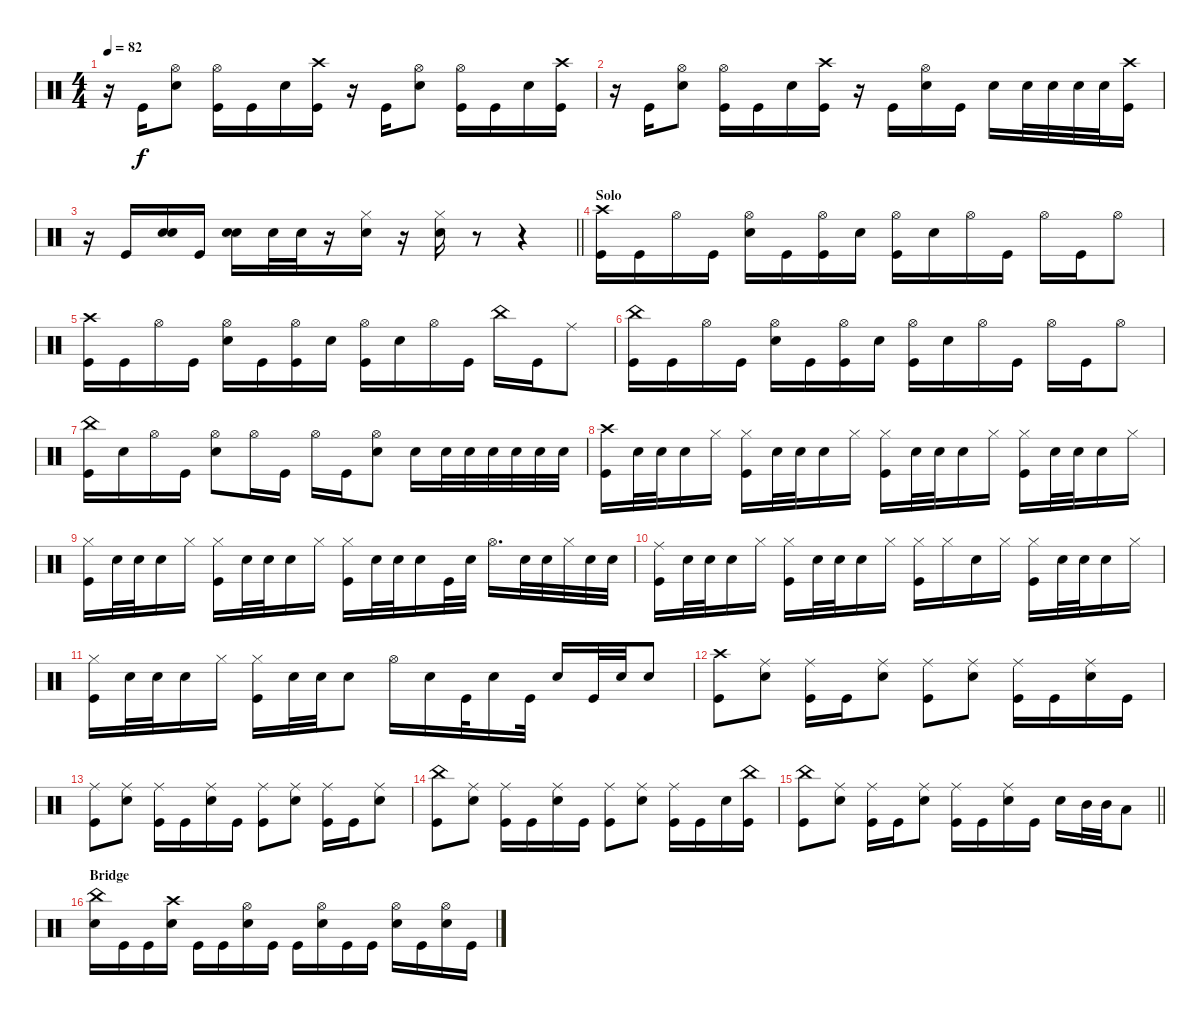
\track "" {instrument percussion}
\staff {score}
\articulation defaults
\ts (4 4)
\tempo 82
\clef neutral
\ks c
r.16{dy f} "Kick (hit)".16 ("Snare (hit) 2" "Hi-Hat (open)").8 ("Kick (hit)" "Hi-Hat (open)").16 "Kick (hit)".16 "Snare (hit) 2".16 ("Kick (hit)" "Crash high (hit)").16 r.16 "Kick (hit)".16 ("Snare (hit) 2" "Hi-Hat (open)").8 ("Kick (hit)" "Hi-Hat (open)").16 "Kick (hit)".16 "Snare (hit) 2".16 ("Kick (hit)" "Crash high (hit)").16 |
r.16 "Kick (hit)".16 ("Snare (hit) 2" "Hi-Hat (open)").8 ("Kick (hit)" "Hi-Hat (open)").16 "Kick (hit)".16 "Snare (hit) 2".16 ("Kick (hit)" "Crash high (hit)").16 r.16 "Kick (hit)".16 ("Snare (hit) 2" "Hi-Hat (open)").16 "Kick (hit)".16 "Snare (hit) 2".16 "Snare (hit) 2".32 "Snare (hit) 2".32 "Snare (hit) 2".32 "Snare (hit) 2".32 ("Kick (hit)" "Crash high (hit)").16 |
\barLineRight lightlight
r.16 "Kick (hit)".16 ("Snare (hit) 2" "Snare (hit) 2").16 "Kick (hit)".16 ("Snare (hit) 2" "Snare (hit) 2").16 "Snare (hit) 2".32 "Snare (hit) 2".32 r.16 ("Snare (hit) 2" "Hi-Hat (closed)").16 r.16 ("Snare (hit) 2" "Hi-Hat (closed)").16 r.8 r.4 |
\section ("" "Solo")
("Crash high (hit)" "Kick (hit)").16{txt ""} "Kick (hit)".16 "Hi-Hat (open)".16 "Kick (hit)".16 ("Snare (hit) 2" "Hi-Hat (open)").16 "Kick (hit)".16 ("Kick (hit)" "Hi-Hat (open)").16 "Snare (hit) 2".16 ("Kick (hit)" "Hi-Hat (open)").16 "Snare (hit) 2".16 "Hi-Hat (open)".16 "Kick (hit)".16 "Hi-Hat (open)".16 "Kick (hit)".16 "Hi-Hat (open)".8 |
("Crash high (hit)" "Kick (hit)").16 "Kick (hit)".16 "Hi-Hat (open)".16 "Kick (hit)".16 ("Snare (hit) 2" "Hi-Hat (open)").16 "Kick (hit)".16 ("Kick (hit)" "Hi-Hat (open)").16 "Snare (hit) 2".16 ("Kick (hit)" "Hi-Hat (open)").16 "Snare (hit) 2".16 "Hi-Hat (open)".16 "Kick (hit)".16 "China (hit)".16 "Kick (hit)".16 "Ride (middle)".8 |
("China (hit)" "Kick (hit)").16 "Kick (hit)".16 "Hi-Hat (open)".16 "Kick (hit)".16 ("Snare (hit) 2" "Hi-Hat (open)").16 "Kick (hit)".16 ("Kick (hit)" "Hi-Hat (open)").16 "Snare (hit) 2".16 ("Kick (hit)" "Hi-Hat (open)").16 "Snare (hit) 2".16 "Hi-Hat (open)".16 "Kick (hit)".16 "Hi-Hat (open)".16 "Kick (hit)".16 "Hi-Hat (open)".8 |
("China (hit)" "Kick (hit)").16 "Snare (hit) 2".16 "Hi-Hat (open)".16 "Kick (hit)".16 ("Snare (hit) 2" "Hi-Hat (open)").8 "Hi-Hat (open)".16 "Kick (hit)".16 "Hi-Hat (open)".16 "Kick (hit)".16 ("Snare (hit) 2" "Hi-Hat (open)").8 "Snare (hit) 2".16 "Snare (hit) 2".32 "Snare (hit) 2".32 "Snare (hit) 2".32 "Snare (hit) 2".32 "Snare (hit) 2".32 "Snare (hit) 2".32 |
("Kick (hit)" "Crash high (hit)").16{txt ""} "Snare (hit) 2".32 "Snare (hit) 2".32 "Snare (hit) 2".16 "Hi-Hat (closed)".16 ("Kick (hit)" "Hi-Hat (closed)").16 "Snare (hit) 2".32 "Snare (hit) 2".32 "Snare (hit) 2".16 "Hi-Hat (closed)".16 ("Kick (hit)" "Hi-Hat (closed)").16 "Snare (hit) 2".32 "Snare (hit) 2".32 "Snare (hit) 2".16 "Hi-Hat (closed)".16 ("Kick (hit)" "Hi-Hat (closed)").16 "Snare (hit) 2".32 "Snare (hit) 2".32 "Snare (hit) 2".16 "Hi-Hat (closed)".16 |
("Kick (hit)" "Hi-Hat (closed)").16 "Snare (hit) 2".32 "Snare (hit) 2".32 "Snare (hit) 2".16 "Hi-Hat (closed)".16 ("Kick (hit)" "Hi-Hat (closed)").16 "Snare (hit) 2".32 "Snare (hit) 2".32 "Snare (hit) 2".16 "Hi-Hat (closed)".16 ("Kick (hit)" "Hi-Hat (closed)").16 "Snare (hit) 2".32 "Snare (hit) 2".32 "Snare (hit) 2".16 "Kick (hit)".32 "Snare (hit) 2".32 "Hi-Hat (open)".16{d} "Snare (hit) 2".32 "Snare (hit) 2".32 "Hi-Hat (closed)".32 "Snare (hit) 2".32 "Snare (hit) 2".32 |
("Kick (hit)" "Ride (middle)").16 "Snare (hit) 2".32 "Snare (hit) 2".32 "Snare (hit) 2".16 "Hi-Hat (closed)".16 ("Kick (hit)" "Hi-Hat (closed)").16 "Snare (hit) 2".32 "Snare (hit) 2".32 "Snare (hit) 2".16 "Hi-Hat (closed)".16 ("Hi-Hat (closed)" "Kick (hit)").16 "Hi-Hat (closed)".16 "Snare (hit) 2".16 "Hi-Hat (closed)".16 ("Kick (hit)" "Hi-Hat (closed)").16 "Snare (hit) 2".32 "Snare (hit) 2".32 "Snare (hit) 2".16 "Hi-Hat (closed)".16 |
("Kick (hit)" "Hi-Hat (closed)").16 "Snare (hit) 2".32 "Snare (hit) 2".32 "Snare (hit) 2".16 "Hi-Hat (closed)".16 ("Kick (hit)" "Hi-Hat (closed)").16 "Snare (hit) 2".32 "Snare (hit) 2".32 "Snare (hit) 2".8 "Hi-Hat (open)".16 "Snare (hit) 2".16 "Kick (hit)".32 "Snare (hit) 2".16 "Kick (hit)".32 "Snare (hit) 2".16 "Kick (hit)".32 "Snare (hit) 2".32 "Snare (hit) 2".8 |
("Crash high (hit)" "Kick (hit)").8{txt ""} ("Ride (middle)" "Snare (hit) 2").8 ("Kick (hit)" "Ride (middle)").16 "Kick (hit)".16 ("Ride (middle)" "Snare (hit) 2").8 ("Kick (hit)" "Ride (middle)").8 ("Ride (middle)" "Snare (hit) 2").8 ("Ride (middle)" "Kick (hit)").16 "Kick (hit)".16 ("Ride (middle)" "Snare (hit) 2").16 "Kick (hit)".16 |
("Ride (middle)" "Kick (hit)").8 ("Ride (middle)" "Snare (hit) 2").8 ("Kick (hit)" "Ride (middle)").16 "Kick (hit)".16 ("Ride (middle)" "Snare (hit) 2").16 "Kick (hit)".16 ("Kick (hit)" "Ride (middle)").8 ("Ride (middle)" "Snare (hit) 2").8 ("Ride (middle)" "Kick (hit)").16 "Kick (hit)".16 ("Ride (middle)" "Snare (hit) 2").8 |
("China (hit)" "Kick (hit)").8 ("Ride (middle)" "Snare (hit) 2").8 ("Kick (hit)" "Ride (middle)").16 "Kick (hit)".16 ("Ride (middle)" "Snare (hit) 2").16 "Kick (hit)".16 ("Kick (hit)" "Ride (middle)").8 ("Ride (middle)" "Snare (hit) 2").8 ("Ride (middle)" "Kick (hit)").16 "Kick (hit)".16 "Snare (hit) 2".16 ("Kick (hit)" "China (hit)").16{txt ""} |
\barLineRight lightlight
("China (hit)" "Kick (hit)").8 ("Ride (middle)" "Snare (hit) 2").8 ("Kick (hit)" "Ride (middle)").16 "Kick (hit)".16 ("Ride (middle)" "Snare (hit) 2").8 ("Ride (middle)" "Kick (hit)").16 "Kick (hit)".16 ("Ride (middle)" "Snare (hit) 2").16 "Kick (hit)".16 "Snare (hit) 2".16 "Mid Tom (hit)".32 "Mid Tom (hit)".32 "Low Tom (hit)".8 |
\section ("" "Bridge")
("China (hit)" "Snare (hit) 2").16{txt ""} "Kick (hit)".16 "Kick (hit)".16 ("Snare (hit) 2" "Crash high (hit)").16 "Kick (hit)".16 "Kick (hit)".16 ("Hi-Hat (open)" "Snare (hit) 2").16 "Kick (hit)".16 "Kick (hit)".16 ("Hi-Hat (open)" "Snare (hit) 2").16 "Kick (hit)".16 "Kick (hit)".16 ("Hi-Hat (open)" "Snare (hit) 2").16 "Kick (hit)".16 ("Hi-Hat (open)" "Snare (hit) 2").16 "Kick (hit)".16
